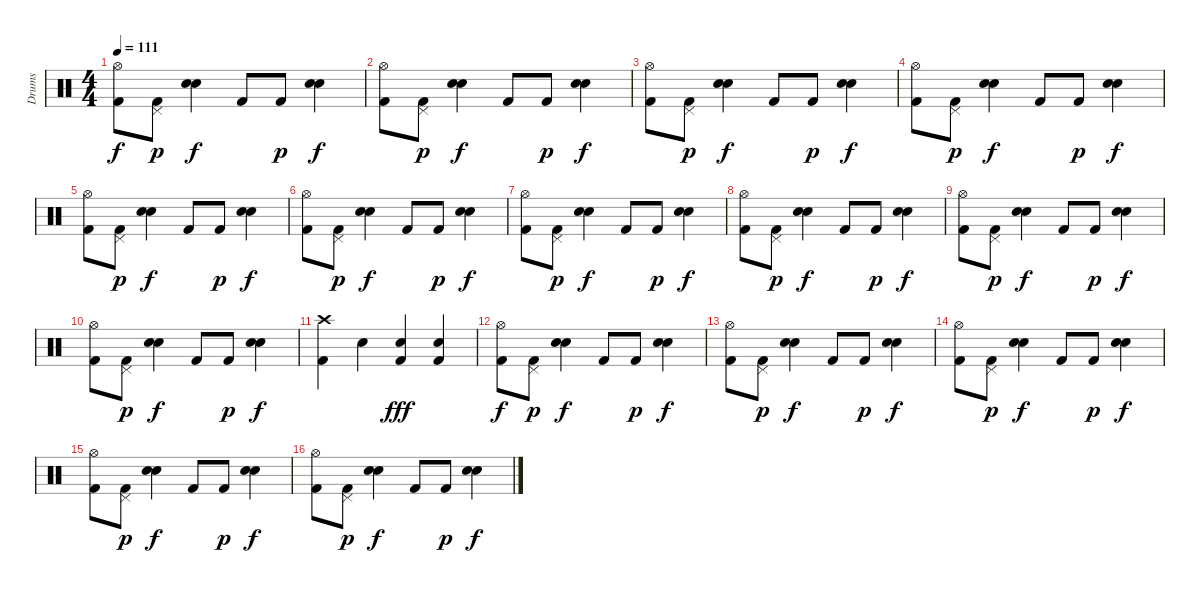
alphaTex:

\track ("Drums" "Drums") {instrument percussion}
\staff {score}
\articulation defaults
\ts (4 4)
\tempo 111
\clef neutral
\ks c
("Hi-Hat (open)" "Kick (hit) 2").8{dy f} ("Kick (hit) 2" "Pedal Hi-Hat (hit)").8{dy p} ("Snare (hit) 2" "Snare (hit) 2").4{dy f} "Kick (hit) 2".8 "Kick (hit) 2".8{dy p} ("Snare (hit) 2" "Snare (hit) 2").4{dy f} |
("Hi-Hat (open)" "Kick (hit) 2").8 ("Kick (hit) 2" "Pedal Hi-Hat (hit)").8{dy p} ("Snare (hit) 2" "Snare (hit) 2").4{dy f} "Kick (hit) 2".8 "Kick (hit) 2".8{dy p} ("Snare (hit) 2" "Snare (hit) 2").4{dy f} |
("Hi-Hat (open)" "Kick (hit) 2").8 ("Kick (hit) 2" "Pedal Hi-Hat (hit)").8{dy p} ("Snare (hit) 2" "Snare (hit) 2").4{dy f} "Kick (hit) 2".8 "Kick (hit) 2".8{dy p} ("Snare (hit) 2" "Snare (hit) 2").4{dy f} |
("Hi-Hat (open)" "Kick (hit) 2").8 ("Kick (hit) 2" "Pedal Hi-Hat (hit)").8{dy p} ("Snare (hit) 2" "Snare (hit) 2").4{dy f} "Kick (hit) 2".8 "Kick (hit) 2".8{dy p} ("Snare (hit) 2" "Snare (hit) 2").4{dy f} |
("Hi-Hat (open)" "Kick (hit) 2").8 ("Kick (hit) 2" "Pedal Hi-Hat (hit)").8{dy p} ("Snare (hit) 2" "Snare (hit) 2").4{dy f} "Kick (hit) 2".8 "Kick (hit) 2".8{dy p} ("Snare (hit) 2" "Snare (hit) 2").4{dy f} |
("Hi-Hat (open)" "Kick (hit) 2").8 ("Kick (hit) 2" "Pedal Hi-Hat (hit)").8{dy p} ("Snare (hit) 2" "Snare (hit) 2").4{dy f} "Kick (hit) 2".8 "Kick (hit) 2".8{dy p} ("Snare (hit) 2" "Snare (hit) 2").4{dy f} |
("Hi-Hat (open)" "Kick (hit) 2").8 ("Kick (hit) 2" "Pedal Hi-Hat (hit)").8{dy p} ("Snare (hit) 2" "Snare (hit) 2").4{dy f} "Kick (hit) 2".8 "Kick (hit) 2".8{dy p} ("Snare (hit) 2" "Snare (hit) 2").4{dy f} |
("Hi-Hat (open)" "Kick (hit) 2").8 ("Kick (hit) 2" "Pedal Hi-Hat (hit)").8{dy p} ("Snare (hit) 2" "Snare (hit) 2").4{dy f} "Kick (hit) 2".8 "Kick (hit) 2".8{dy p} ("Snare (hit) 2" "Snare (hit) 2").4{dy f} |
("Hi-Hat (open)" "Kick (hit) 2").8 ("Kick (hit) 2" "Pedal Hi-Hat (hit)").8{dy p} ("Snare (hit) 2" "Snare (hit) 2").4{dy f} "Kick (hit) 2".8 "Kick (hit) 2".8{dy p} ("Snare (hit) 2" "Snare (hit) 2").4{dy f} |
("Hi-Hat (open)" "Kick (hit) 2").8 ("Kick (hit) 2" "Pedal Hi-Hat (hit)").8{dy p} ("Snare (hit) 2" "Snare (hit) 2").4{dy f} "Kick (hit) 2".8 "Kick (hit) 2".8{dy p} ("Snare (hit) 2" "Snare (hit) 2").4{dy f} |
("Crash high (hit)" "Kick (hit) 2").4 "Snare (hit) 2".4 ("Snare (hit) 2" "Kick (hit) 2").4{dy fff} ("Snare (hit) 2" "Kick (hit) 2").4 |
("Hi-Hat (open)" "Kick (hit) 2").8{dy f} ("Kick (hit) 2" "Pedal Hi-Hat (hit)").8{dy p} ("Snare (hit) 2" "Snare (hit) 2").4{dy f} "Kick (hit) 2".8 "Kick (hit) 2".8{dy p} ("Snare (hit) 2" "Snare (hit) 2").4{dy f} |
("Hi-Hat (open)" "Kick (hit) 2").8 ("Kick (hit) 2" "Pedal Hi-Hat (hit)").8{dy p} ("Snare (hit) 2" "Snare (hit) 2").4{dy f} "Kick (hit) 2".8 "Kick (hit) 2".8{dy p} ("Snare (hit) 2" "Snare (hit) 2").4{dy f} |
("Hi-Hat (open)" "Kick (hit) 2").8 ("Kick (hit) 2" "Pedal Hi-Hat (hit)").8{dy p} ("Snare (hit) 2" "Snare (hit) 2").4{dy f} "Kick (hit) 2".8 "Kick (hit) 2".8{dy p} ("Snare (hit) 2" "Snare (hit) 2").4{dy f} |
("Hi-Hat (open)" "Kick (hit) 2").8 ("Kick (hit) 2" "Pedal Hi-Hat (hit)").8{dy p} ("Snare (hit) 2" "Snare (hit) 2").4{dy f} "Kick (hit) 2".8 "Kick (hit) 2".8{dy p} ("Snare (hit) 2" "Snare (hit) 2").4{dy f} |
("Hi-Hat (open)" "Kick (hit) 2").8 ("Kick (hit) 2" "Pedal Hi-Hat (hit)").8{dy p} ("Snare (hit) 2" "Snare (hit) 2").4{dy f} "Kick (hit) 2".8 "Kick (hit) 2".8{dy p} ("Snare (hit) 2" "Snare (hit) 2").4{dy f}
